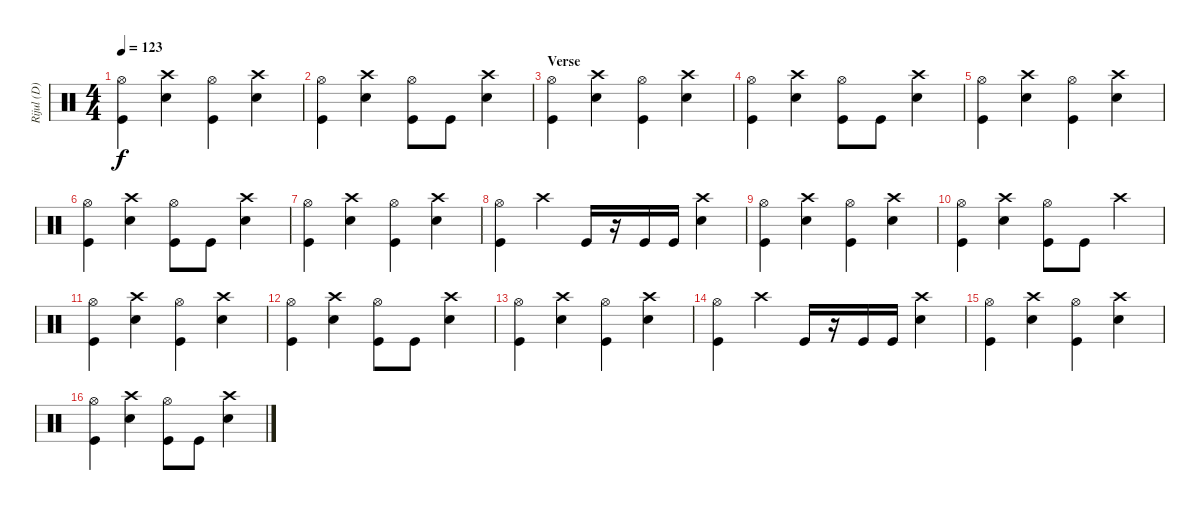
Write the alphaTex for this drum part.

\track ("Rijul (D)" "Rijul (D)") {instrument percussion}
\staff {score}
\articulation defaults
\ts (4 4)
\tempo 123
\clef neutral
\ks c
("Hi-Hat (open)" "Kick (hit)").4{dy f} ("Crash high (hit)" "Snare (hit) 2").4 ("Hi-Hat (open)" "Kick (hit)").4 ("Crash high (hit)" "Snare (hit) 2").4 |
("Hi-Hat (open)" "Kick (hit)").4 ("Crash high (hit)" "Snare (hit) 2").4 ("Hi-Hat (open)" "Kick (hit)").8 "Kick (hit)".8 ("Crash high (hit)" "Snare (hit) 2").4 |
\section ("" "Verse")
("Hi-Hat (open)" "Kick (hit)").4 ("Crash high (hit)" "Snare (hit) 2").4 ("Hi-Hat (open)" "Kick (hit)").4 ("Crash high (hit)" "Snare (hit) 2").4 |
("Hi-Hat (open)" "Kick (hit)").4 ("Crash high (hit)" "Snare (hit) 2").4 ("Hi-Hat (open)" "Kick (hit)").8 "Kick (hit)".8 ("Crash high (hit)" "Snare (hit) 2").4 |
("Hi-Hat (open)" "Kick (hit)").4 ("Crash high (hit)" "Snare (hit) 2").4 ("Hi-Hat (open)" "Kick (hit)").4 ("Crash high (hit)" "Snare (hit) 2").4 |
("Hi-Hat (open)" "Kick (hit)").4 ("Crash high (hit)" "Snare (hit) 2").4 ("Hi-Hat (open)" "Kick (hit)").8 "Kick (hit)".8 ("Crash high (hit)" "Snare (hit) 2").4 |
("Hi-Hat (open)" "Kick (hit)").4 ("Crash high (hit)" "Snare (hit) 2").4 ("Hi-Hat (open)" "Kick (hit)").4 ("Crash high (hit)" "Snare (hit) 2").4 |
("Hi-Hat (open)" "Kick (hit)").4 "Crash high (hit)".4 "Kick (hit)".16 r.16 "Kick (hit)".16 "Kick (hit)".16 ("Crash high (hit)" "Snare (hit) 2").4 |
("Hi-Hat (open)" "Kick (hit)").4 ("Crash high (hit)" "Snare (hit) 2").4 ("Hi-Hat (open)" "Kick (hit)").4 ("Crash high (hit)" "Snare (hit) 2").4 |
("Hi-Hat (open)" "Kick (hit)").4 ("Crash high (hit)" "Snare (hit) 2").4 ("Hi-Hat (open)" "Kick (hit)").8 "Kick (hit)".8 "Crash high (hit)".4 |
("Hi-Hat (open)" "Kick (hit)").4 ("Crash high (hit)" "Snare (hit) 2").4 ("Hi-Hat (open)" "Kick (hit)").4 ("Crash high (hit)" "Snare (hit) 2").4 |
("Hi-Hat (open)" "Kick (hit)").4 ("Crash high (hit)" "Snare (hit) 2").4 ("Hi-Hat (open)" "Kick (hit)").8 "Kick (hit)".8 ("Crash high (hit)" "Snare (hit) 2").4 |
("Hi-Hat (open)" "Kick (hit)").4 ("Crash high (hit)" "Snare (hit) 2").4 ("Hi-Hat (open)" "Kick (hit)").4 ("Crash high (hit)" "Snare (hit) 2").4 |
("Hi-Hat (open)" "Kick (hit)").4 "Crash high (hit)".4 "Kick (hit)".16 r.16 "Kick (hit)".16 "Kick (hit)".16 ("Crash high (hit)" "Snare (hit) 2").4 |
("Hi-Hat (open)" "Kick (hit)").4 ("Crash high (hit)" "Snare (hit) 2").4 ("Hi-Hat (open)" "Kick (hit)").4 ("Crash high (hit)" "Snare (hit) 2").4 |
("Hi-Hat (open)" "Kick (hit)").4 ("Crash high (hit)" "Snare (hit) 2").4 ("Hi-Hat (open)" "Kick (hit)").8 "Kick (hit)".8 ("Crash high (hit)" "Snare (hit) 2").4
